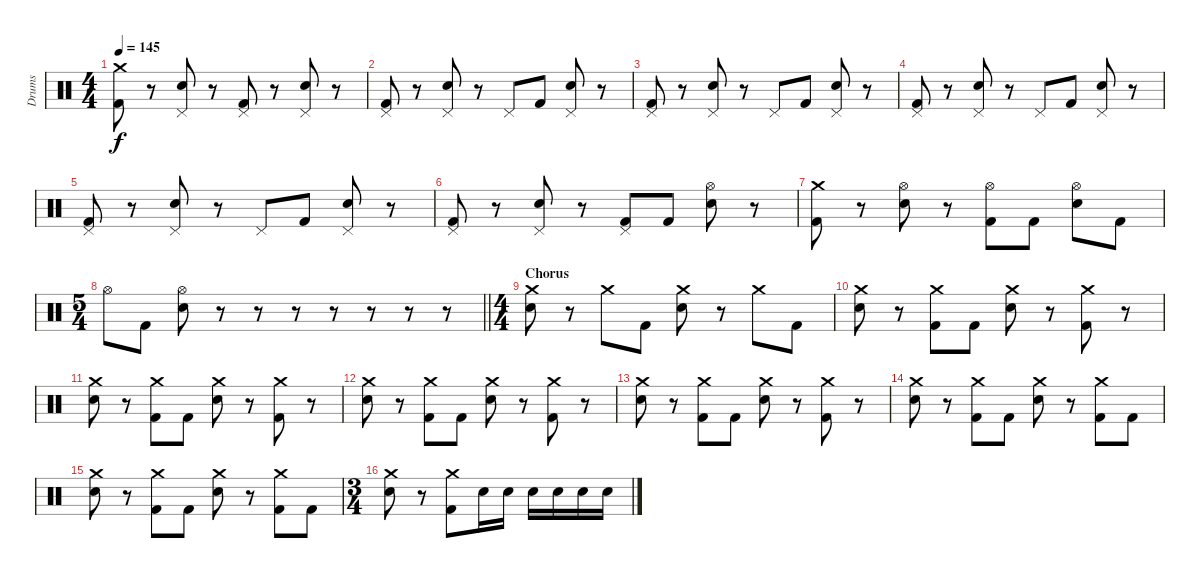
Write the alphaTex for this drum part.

\track ("Drums" "Drums") {instrument percussion}
\staff {score}
\articulation defaults
\ts (4 4)
\tempo 145
\clef neutral
\ks c
("Crash medium (hit)" "Kick (hit) 2").8{dy f} r.8 ("Pedal Hi-Hat (hit)" "Electric Snare (hit)").8 r.8 ("Pedal Hi-Hat (hit)" "Kick (hit) 2").8 r.8 ("Pedal Hi-Hat (hit)" "Electric Snare (hit)").8 r.8 |
("Pedal Hi-Hat (hit)" "Kick (hit) 2").8 r.8 ("Pedal Hi-Hat (hit)" "Electric Snare (hit)").8 r.8 "Pedal Hi-Hat (hit)".8 "Kick (hit) 2".8 ("Pedal Hi-Hat (hit)" "Electric Snare (hit)").8 r.8 |
("Pedal Hi-Hat (hit)" "Kick (hit) 2").8 r.8 ("Pedal Hi-Hat (hit)" "Electric Snare (hit)").8 r.8 "Pedal Hi-Hat (hit)".8 "Kick (hit) 2".8 ("Pedal Hi-Hat (hit)" "Electric Snare (hit)").8 r.8 |
("Pedal Hi-Hat (hit)" "Kick (hit) 2").8 r.8 ("Pedal Hi-Hat (hit)" "Electric Snare (hit)").8 r.8 "Pedal Hi-Hat (hit)".8 "Kick (hit) 2".8 ("Pedal Hi-Hat (hit)" "Electric Snare (hit)").8 r.8 |
("Pedal Hi-Hat (hit)" "Kick (hit) 2").8 r.8 ("Pedal Hi-Hat (hit)" "Electric Snare (hit)").8 r.8 "Pedal Hi-Hat (hit)".8 "Kick (hit) 2".8 ("Pedal Hi-Hat (hit)" "Electric Snare (hit)").8 r.8 |
("Pedal Hi-Hat (hit)" "Kick (hit) 2").8 r.8 ("Pedal Hi-Hat (hit)" "Electric Snare (hit)").8 r.8 ("Pedal Hi-Hat (hit)" "Kick (hit) 2").8 "Kick (hit) 2".8 ("Hi-Hat (open)" "Electric Snare (hit)").8 r.8 |
("Crash medium (hit)" "Kick (hit) 2").8 r.8 ("Hi-Hat (open)" "Electric Snare (hit)").8 r.8 ("Hi-Hat (open)" "Kick (hit) 2").8 "Kick (hit) 2".8 ("Hi-Hat (open)" "Electric Snare (hit)").8 "Kick (hit) 2".8 |
\ts (5 4)
\barLineRight lightlight "Hi-Hat (open)".8 "Kick (hit) 2".8
("Hi-Hat (open)" "Electric Snare (hit)").8 r.8 r.8 r.8 r.8 r.8 r.8 r.8 |
\ts (4 4)
\section ("" "Chorus")
("Crash medium (hit)" "Electric Snare (hit)").8 r.8 "Crash medium (hit)".8 "Kick (hit) 2".8 ("Crash medium (hit)" "Electric Snare (hit)").8 r.8 "Crash medium (hit)".8 "Kick (hit) 2".8 |
("Crash medium (hit)" "Electric Snare (hit)").8 r.8 ("Crash medium (hit)" "Kick (hit) 2").8 "Kick (hit) 2".8 ("Crash medium (hit)" "Electric Snare (hit)").8 r.8 ("Crash medium (hit)" "Kick (hit) 2").8 r.8 |
("Crash medium (hit)" "Electric Snare (hit)").8 r.8 ("Crash medium (hit)" "Kick (hit) 2").8 "Kick (hit) 2".8 ("Crash medium (hit)" "Electric Snare (hit)").8 r.8 ("Crash medium (hit)" "Kick (hit) 2").8 r.8 |
("Crash medium (hit)" "Electric Snare (hit)").8 r.8 ("Crash medium (hit)" "Kick (hit) 2").8 "Kick (hit) 2".8 ("Crash medium (hit)" "Electric Snare (hit)").8 r.8 ("Crash medium (hit)" "Kick (hit) 2").8 r.8 |
("Crash medium (hit)" "Electric Snare (hit)").8 r.8 ("Crash medium (hit)" "Kick (hit) 2").8 "Kick (hit) 2".8 ("Crash medium (hit)" "Electric Snare (hit)").8 r.8 ("Crash medium (hit)" "Kick (hit) 2").8 r.8 |
("Crash medium (hit)" "Electric Snare (hit)").8 r.8 ("Crash medium (hit)" "Kick (hit) 2").8 "Kick (hit) 2".8 ("Crash medium (hit)" "Electric Snare (hit)").8 r.8 ("Crash medium (hit)" "Kick (hit) 2").8 "Kick (hit) 2".8 |
("Crash medium (hit)" "Electric Snare (hit)").8 r.8 ("Crash medium (hit)" "Kick (hit) 2").8 "Kick (hit) 2".8 ("Crash medium (hit)" "Electric Snare (hit)").8 r.8 ("Crash medium (hit)" "Kick (hit) 2").8 "Kick (hit) 2".8 |
\ts (3 4)
("Crash medium (hit)" "Electric Snare (hit)").8 r.8 ("Crash medium (hit)" "Kick (hit) 2").8 "Electric Snare (hit)".16 "Electric Snare (hit)".16 "Electric Snare (hit)".16 "Electric Snare (hit)".16 "Electric Snare (hit)".16 "Electric Snare (hit)".16
